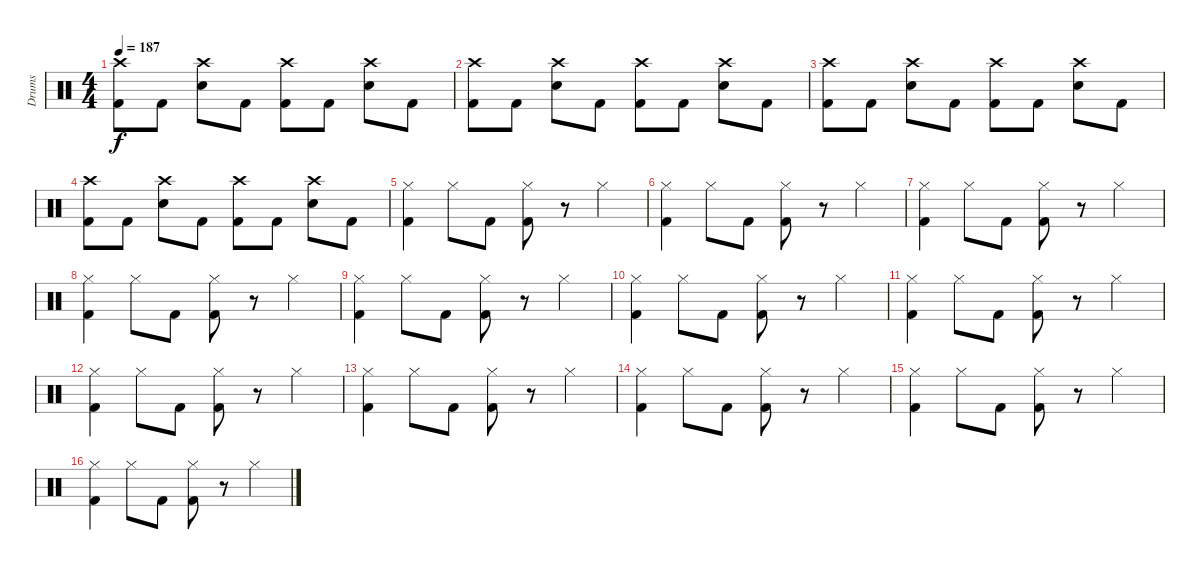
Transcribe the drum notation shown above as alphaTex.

\track ("Drums" "Drums") {instrument percussion}
\staff {score}
\articulation defaults
\ts (4 4)
\tempo 187
\clef neutral
\ks c
("Crash high (hit)" "Kick (hit) 2").8{dy f} "Kick (hit) 2".8 ("Crash high (hit)" "Electric Snare (hit)").8 "Kick (hit) 2".8 ("Crash high (hit)" "Kick (hit) 2").8 "Kick (hit) 2".8 ("Crash high (hit)" "Electric Snare (hit)").8 "Kick (hit) 2".8 |
("Crash high (hit)" "Kick (hit) 2").8 "Kick (hit) 2".8 ("Crash high (hit)" "Electric Snare (hit)").8 "Kick (hit) 2".8 ("Crash high (hit)" "Kick (hit) 2").8 "Kick (hit) 2".8 ("Crash high (hit)" "Electric Snare (hit)").8 "Kick (hit) 2".8 |
("Crash high (hit)" "Kick (hit) 2").8 "Kick (hit) 2".8 ("Crash high (hit)" "Electric Snare (hit)").8 "Kick (hit) 2".8 ("Crash high (hit)" "Kick (hit) 2").8 "Kick (hit) 2".8 ("Crash high (hit)" "Electric Snare (hit)").8 "Kick (hit) 2".8 |
("Crash high (hit)" "Kick (hit) 2").8 "Kick (hit) 2".8 ("Crash high (hit)" "Electric Snare (hit)").8 "Kick (hit) 2".8 ("Crash high (hit)" "Kick (hit) 2").8 "Kick (hit) 2".8 ("Crash high (hit)" "Electric Snare (hit)").8 "Kick (hit) 2".8 |
("Hi-Hat (closed)" "Kick (hit) 2").4 "Hi-Hat (closed)".8 "Kick (hit) 2".8 ("Hi-Hat (closed)" "Kick (hit) 2").8 r.8 "Hi-Hat (closed)".4 |
("Hi-Hat (closed)" "Kick (hit) 2").4 "Hi-Hat (closed)".8 "Kick (hit) 2".8 ("Hi-Hat (closed)" "Kick (hit) 2").8 r.8 "Hi-Hat (closed)".4 |
("Hi-Hat (closed)" "Kick (hit) 2").4 "Hi-Hat (closed)".8 "Kick (hit) 2".8 ("Hi-Hat (closed)" "Kick (hit) 2").8 r.8 "Hi-Hat (closed)".4 |
("Hi-Hat (closed)" "Kick (hit) 2").4 "Hi-Hat (closed)".8 "Kick (hit) 2".8 ("Hi-Hat (closed)" "Kick (hit) 2").8 r.8 "Hi-Hat (closed)".4 |
("Hi-Hat (closed)" "Kick (hit) 2").4 "Hi-Hat (closed)".8 "Kick (hit) 2".8 ("Hi-Hat (closed)" "Kick (hit) 2").8 r.8 "Hi-Hat (closed)".4 |
("Hi-Hat (closed)" "Kick (hit) 2").4 "Hi-Hat (closed)".8 "Kick (hit) 2".8 ("Hi-Hat (closed)" "Kick (hit) 2").8 r.8 "Hi-Hat (closed)".4 |
("Hi-Hat (closed)" "Kick (hit) 2").4 "Hi-Hat (closed)".8 "Kick (hit) 2".8 ("Hi-Hat (closed)" "Kick (hit) 2").8 r.8 "Hi-Hat (closed)".4 |
("Hi-Hat (closed)" "Kick (hit) 2").4 "Hi-Hat (closed)".8 "Kick (hit) 2".8 ("Hi-Hat (closed)" "Kick (hit) 2").8 r.8 "Hi-Hat (closed)".4 |
("Hi-Hat (closed)" "Kick (hit) 2").4 "Hi-Hat (closed)".8 "Kick (hit) 2".8 ("Hi-Hat (closed)" "Kick (hit) 2").8 r.8 "Hi-Hat (closed)".4 |
("Hi-Hat (closed)" "Kick (hit) 2").4 "Hi-Hat (closed)".8 "Kick (hit) 2".8 ("Hi-Hat (closed)" "Kick (hit) 2").8 r.8 "Hi-Hat (closed)".4 |
("Hi-Hat (closed)" "Kick (hit) 2").4 "Hi-Hat (closed)".8 "Kick (hit) 2".8 ("Hi-Hat (closed)" "Kick (hit) 2").8 r.8 "Hi-Hat (closed)".4 |
("Hi-Hat (closed)" "Kick (hit) 2").4 "Hi-Hat (closed)".8 "Kick (hit) 2".8 ("Hi-Hat (closed)" "Kick (hit) 2").8 r.8 "Hi-Hat (closed)".4
